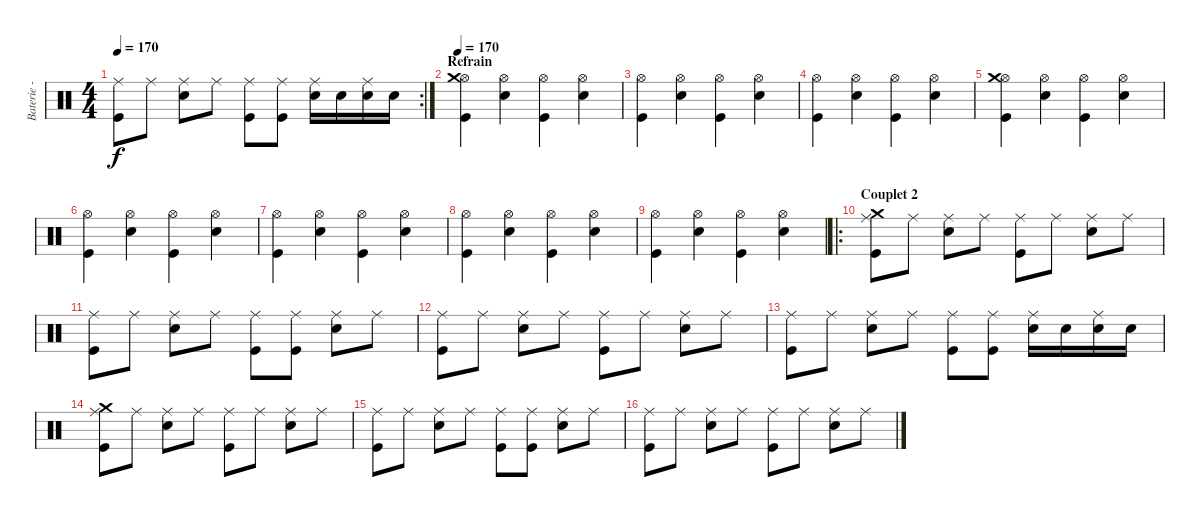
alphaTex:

\track ("Baterie - Alex" "Baterie - ") {instrument percussion}
\staff {score}
\articulation defaults
\rc 2
\ts (4 4)
\tempo 170
\clef neutral
\ks c
("Ride (middle)" "Kick (hit)").8{dy f} "Ride (middle)".8 ("Ride (middle)" "Electric Snare (hit)").8 "Ride (middle)".8 ("Ride (middle)" "Kick (hit)").8 ("Ride (middle)" "Kick (hit)").8 ("Ride (middle)" "Electric Snare (hit)").16 "Electric Snare (hit)".16 ("Ride (middle)" "Electric Snare (hit)").16 "Electric Snare (hit)".16 |
\section ("" "Refrain")
\tempo 170
("Hi-Hat (open)" "Crash medium (hit)" "Kick (hit)").4 ("Hi-Hat (open)" "Electric Snare (hit)").4 ("Hi-Hat (open)" "Kick (hit)").4 ("Hi-Hat (open)" "Electric Snare (hit)").4 |
("Hi-Hat (open)" "Kick (hit)").4 ("Hi-Hat (open)" "Electric Snare (hit)").4 ("Hi-Hat (open)" "Kick (hit)").4 ("Hi-Hat (open)" "Electric Snare (hit)").4 |
("Hi-Hat (open)" "Kick (hit)").4 ("Hi-Hat (open)" "Electric Snare (hit)").4 ("Hi-Hat (open)" "Kick (hit)").4 ("Hi-Hat (open)" "Electric Snare (hit)").4 |
("Hi-Hat (open)" "Crash medium (hit)" "Kick (hit)").4 ("Hi-Hat (open)" "Electric Snare (hit)").4 ("Hi-Hat (open)" "Kick (hit)").4 ("Hi-Hat (open)" "Electric Snare (hit)").4 |
("Hi-Hat (open)" "Kick (hit)").4 ("Hi-Hat (open)" "Electric Snare (hit)").4 ("Hi-Hat (open)" "Kick (hit)").4 ("Hi-Hat (open)" "Electric Snare (hit)").4 |
("Hi-Hat (open)" "Kick (hit)").4 ("Hi-Hat (open)" "Electric Snare (hit)").4 ("Hi-Hat (open)" "Kick (hit)").4 ("Hi-Hat (open)" "Electric Snare (hit)").4 |
("Hi-Hat (open)" "Kick (hit)").4 ("Hi-Hat (open)" "Electric Snare (hit)").4 ("Hi-Hat (open)" "Kick (hit)").4 ("Hi-Hat (open)" "Electric Snare (hit)").4 |
("Hi-Hat (open)" "Kick (hit)").4 ("Hi-Hat (open)" "Electric Snare (hit)").4 ("Hi-Hat (open)" "Kick (hit)").4 ("Hi-Hat (open)" "Electric Snare (hit)").4 |
\ro
\section ("" "Couplet 2")
("Ride (middle)" "Crash medium (hit)" "Kick (hit)").8 "Ride (middle)".8 ("Ride (middle)" "Electric Snare (hit)").8 "Ride (middle)".8 ("Ride (middle)" "Kick (hit)").8 "Ride (middle)".8 ("Ride (middle)" "Electric Snare (hit)").8 "Ride (middle)".8 |
("Ride (middle)" "Kick (hit)").8 "Ride (middle)".8 ("Ride (middle)" "Electric Snare (hit)").8 "Ride (middle)".8 ("Ride (middle)" "Kick (hit)").8 ("Ride (middle)" "Kick (hit)").8 ("Ride (middle)" "Electric Snare (hit)").8 "Ride (middle)".8 |
("Ride (middle)" "Kick (hit)").8 "Ride (middle)".8 ("Ride (middle)" "Electric Snare (hit)").8 "Ride (middle)".8 ("Ride (middle)" "Kick (hit)").8 "Ride (middle)".8 ("Ride (middle)" "Electric Snare (hit)").8 "Ride (middle)".8 |
("Ride (middle)" "Kick (hit)").8 "Ride (middle)".8 ("Ride (middle)" "Electric Snare (hit)").8 "Ride (middle)".8 ("Ride (middle)" "Kick (hit)").8 ("Ride (middle)" "Kick (hit)").8 ("Ride (middle)" "Electric Snare (hit)").16 "Electric Snare (hit)".16 ("Ride (middle)" "Electric Snare (hit)").16 "Electric Snare (hit)".16 |
("Ride (middle)" "Crash medium (hit)" "Kick (hit)").8 "Ride (middle)".8 ("Ride (middle)" "Electric Snare (hit)").8 "Ride (middle)".8 ("Ride (middle)" "Kick (hit)").8 "Ride (middle)".8 ("Ride (middle)" "Electric Snare (hit)").8 "Ride (middle)".8 |
("Ride (middle)" "Kick (hit)").8 "Ride (middle)".8 ("Ride (middle)" "Electric Snare (hit)").8 "Ride (middle)".8 ("Ride (middle)" "Kick (hit)").8 ("Ride (middle)" "Kick (hit)").8 ("Ride (middle)" "Electric Snare (hit)").8 "Ride (middle)".8 |
("Ride (middle)" "Kick (hit)").8 "Ride (middle)".8 ("Ride (middle)" "Electric Snare (hit)").8 "Ride (middle)".8 ("Ride (middle)" "Kick (hit)").8 "Ride (middle)".8 ("Ride (middle)" "Electric Snare (hit)").8 "Ride (middle)".8
